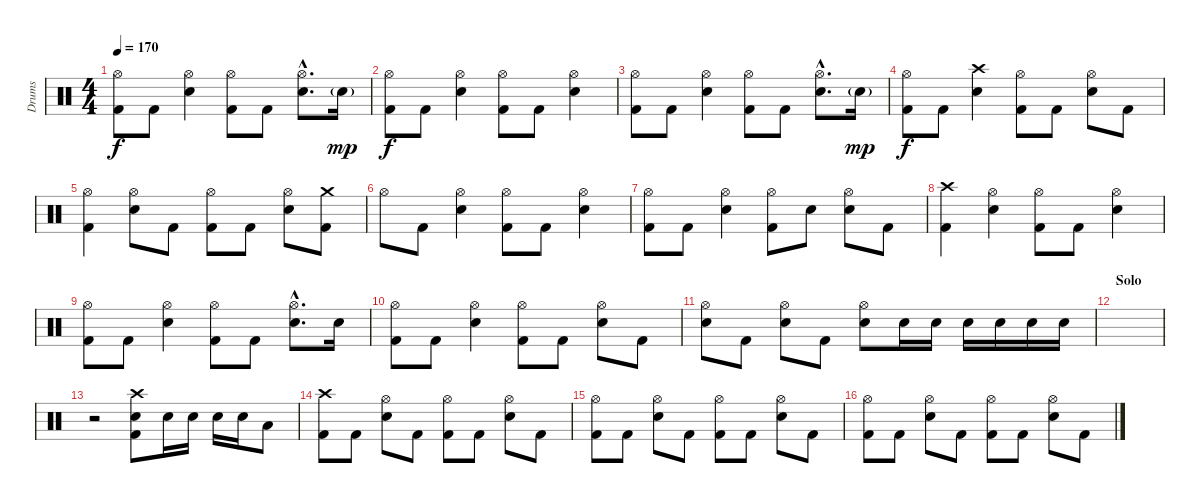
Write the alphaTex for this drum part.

\track ("Drums" "Drums") {instrument percussion}
\staff {score}
\articulation defaults
\ts (4 4)
\tempo 170
\clef neutral
\ks c
("Hi-Hat (open)" "Kick (hit) 2").8{dy f} "Kick (hit) 2".8 ("Hi-Hat (open)" "Electric Snare (hit)").4 ("Hi-Hat (open)" "Kick (hit) 2").8 "Kick (hit) 2".8 ("Hi-Hat (open)"{hac} "Electric Snare (hit)"{hac}).8{d} "Electric Snare (hit)"{g}.16{dy mp} |
("Hi-Hat (open)" "Kick (hit) 2").8{dy f} "Kick (hit) 2".8 ("Hi-Hat (open)" "Electric Snare (hit)").4 ("Hi-Hat (open)" "Kick (hit) 2").8 "Kick (hit) 2".8 ("Hi-Hat (open)" "Electric Snare (hit)").4 |
("Hi-Hat (open)" "Kick (hit) 2").8 "Kick (hit) 2".8 ("Hi-Hat (open)" "Electric Snare (hit)").4 ("Hi-Hat (open)" "Kick (hit) 2").8 "Kick (hit) 2".8 ("Hi-Hat (open)"{hac} "Electric Snare (hit)"{hac}).8{d} "Electric Snare (hit)"{g}.16{dy mp} |
("Hi-Hat (open)" "Kick (hit) 2").8{dy f} "Kick (hit) 2".8 ("Crash high (hit)" "Electric Snare (hit)").4 ("Hi-Hat (open)" "Kick (hit) 2").8 "Kick (hit) 2".8 ("Hi-Hat (open)" "Electric Snare (hit)").8 "Kick (hit) 2".8 |
("Hi-Hat (open)" "Kick (hit) 2").4 ("Hi-Hat (open)" "Electric Snare (hit)").8 "Kick (hit) 2".8 ("Hi-Hat (open)" "Kick (hit) 2").8 "Kick (hit) 2".8 ("Hi-Hat (open)" "Electric Snare (hit)").8 ("Crash medium (hit)" "Kick (hit) 2").8 |
"Hi-Hat (open)".8 "Kick (hit) 2".8 ("Hi-Hat (open)" "Electric Snare (hit)").4 ("Hi-Hat (open)" "Kick (hit) 2").8 "Kick (hit) 2".8 ("Hi-Hat (open)" "Electric Snare (hit)").4 |
("Hi-Hat (open)" "Kick (hit) 2").8 "Kick (hit) 2".8 ("Hi-Hat (open)" "Electric Snare (hit)").4 ("Hi-Hat (open)" "Kick (hit) 2").8 "Electric Snare (hit)".8 ("Hi-Hat (open)" "Electric Snare (hit)").8 "Kick (hit) 2".8 |
("Crash high (hit)" "Kick (hit) 2").4 ("Hi-Hat (open)" "Electric Snare (hit)").4 ("Hi-Hat (open)" "Kick (hit) 2").8 "Kick (hit) 2".8 ("Hi-Hat (open)" "Electric Snare (hit)").4 |
("Hi-Hat (open)" "Kick (hit) 2").8 "Kick (hit) 2".8 ("Hi-Hat (open)" "Electric Snare (hit)").4 ("Hi-Hat (open)" "Kick (hit) 2").8 "Kick (hit) 2".8 ("Hi-Hat (open)"{hac} "Electric Snare (hit)"{hac}).8{d} "Electric Snare (hit)".16 |
("Hi-Hat (open)" "Kick (hit) 2").8 "Kick (hit) 2".8 ("Hi-Hat (open)" "Electric Snare (hit)").4 ("Hi-Hat (open)" "Kick (hit) 2").8 "Kick (hit) 2".8 ("Hi-Hat (open)" "Electric Snare (hit)").8 "Kick (hit) 2".8 |
("Hi-Hat (open)" "Electric Snare (hit)").8 "Kick (hit) 2".8 ("Hi-Hat (open)" "Electric Snare (hit)").8 "Kick (hit) 2".8 ("Hi-Hat (open)" "Electric Snare (hit)").8 "Electric Snare (hit)".16 "Electric Snare (hit)".16 "Electric Snare (hit)".16 "Electric Snare (hit)".16 "Electric Snare (hit)".16 "Electric Snare (hit)".16 |
\section ("" "Solo")
|
r.2 ("Crash high (hit)" "Electric Snare (hit)" "Kick (hit) 2").8 "Electric Snare (hit)".16 "Electric Snare (hit)".16 "Electric Snare (hit)".16 "Electric Snare (hit)".16 "Low Tom (hit)".8 |
("Crash high (hit)" "Kick (hit) 2").8 "Kick (hit) 2".8 ("Hi-Hat (open)" "Electric Snare (hit)").8 "Kick (hit) 2".8 ("Hi-Hat (open)" "Kick (hit) 2").8 "Kick (hit) 2".8 ("Hi-Hat (open)" "Electric Snare (hit)").8 "Kick (hit) 2".8 |
("Hi-Hat (open)" "Kick (hit) 2").8 "Kick (hit) 2".8 ("Hi-Hat (open)" "Electric Snare (hit)").8 "Kick (hit) 2".8 ("Hi-Hat (open)" "Kick (hit) 2").8 "Kick (hit) 2".8 ("Hi-Hat (open)" "Electric Snare (hit)").8 "Kick (hit) 2".8 |
("Hi-Hat (open)" "Kick (hit) 2").8 "Kick (hit) 2".8 ("Hi-Hat (open)" "Electric Snare (hit)").8 "Kick (hit) 2".8 ("Hi-Hat (open)" "Kick (hit) 2").8 "Kick (hit) 2".8 ("Hi-Hat (open)" "Electric Snare (hit)").8 "Kick (hit) 2".8
